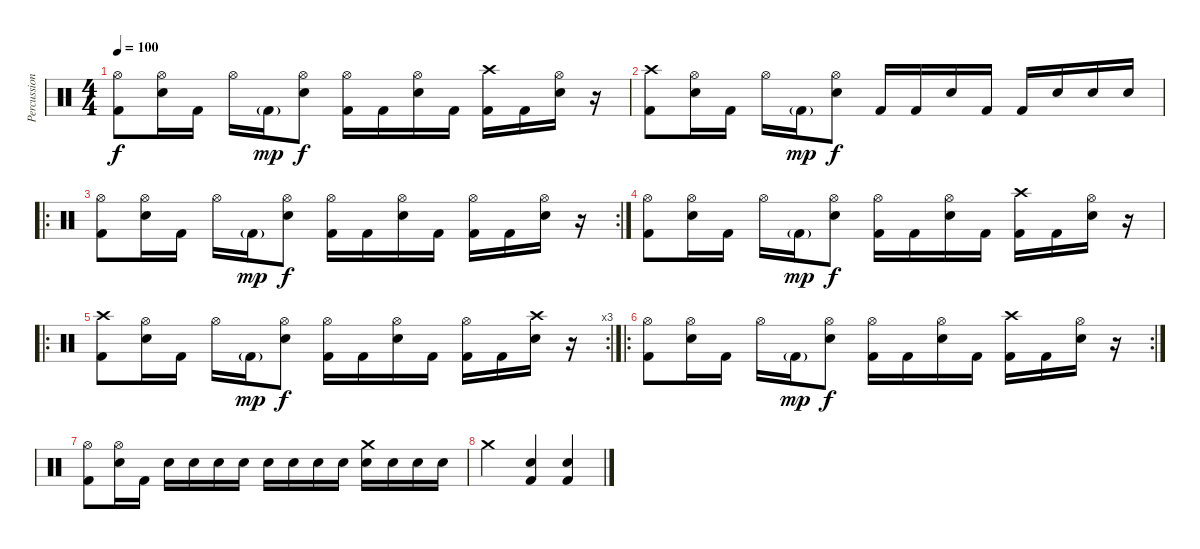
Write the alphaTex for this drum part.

\track ("Percussions" "Percussion") {instrument percussion}
\staff {score}
\articulation defaults
\ts (4 4)
\tempo 100
\clef neutral
\ks c
("Hi-Hat (open)" "Kick (hit) 2").8{dy f} ("Hi-Hat (open)" "Electric Snare (hit)").16 "Kick (hit) 2".16 "Hi-Hat (open)".16 "Kick (hit) 2"{g}.16{dy mp} ("Hi-Hat (open)" "Electric Snare (hit)").8{dy f} ("Hi-Hat (open)" "Kick (hit) 2").16 "Kick (hit) 2".16 ("Hi-Hat (open)" "Electric Snare (hit)").16 "Kick (hit) 2".16 ("Crash high (hit)" "Kick (hit) 2").16 "Kick (hit) 2".16 ("Hi-Hat (open)" "Electric Snare (hit)").16 r.16 |
("Crash high (hit)" "Kick (hit) 2").8 ("Hi-Hat (open)" "Electric Snare (hit)").16 "Kick (hit) 2".16 "Hi-Hat (open)".16 "Kick (hit) 2"{g}.16{dy mp} ("Hi-Hat (open)" "Electric Snare (hit)").8{dy f} "Kick (hit) 2".16 "Kick (hit) 2".16 "Electric Snare (hit)".16 "Kick (hit) 2".16 "Kick (hit) 2".16 "Electric Snare (hit)".16 "Electric Snare (hit)".16 "Electric Snare (hit)".16 |
\ro
\rc 2
("Hi-Hat (open)" "Kick (hit) 2").8 ("Hi-Hat (open)" "Electric Snare (hit)").16 "Kick (hit) 2".16 "Hi-Hat (open)".16 "Kick (hit) 2"{g}.16{dy mp} ("Hi-Hat (open)" "Electric Snare (hit)").8{dy f} ("Hi-Hat (open)" "Kick (hit) 2").16 "Kick (hit) 2".16 ("Hi-Hat (open)" "Electric Snare (hit)").16 "Kick (hit) 2".16 ("Hi-Hat (open)" "Kick (hit) 2").16 "Kick (hit) 2".16 ("Hi-Hat (open)" "Electric Snare (hit)").16 r.16 |
("Hi-Hat (open)" "Kick (hit) 2").8 ("Hi-Hat (open)" "Electric Snare (hit)").16 "Kick (hit) 2".16 "Hi-Hat (open)".16 "Kick (hit) 2"{g}.16{dy mp} ("Hi-Hat (open)" "Electric Snare (hit)").8{dy f} ("Hi-Hat (open)" "Kick (hit) 2").16 "Kick (hit) 2".16 ("Hi-Hat (open)" "Electric Snare (hit)").16 "Kick (hit) 2".16 ("Crash high (hit)" "Kick (hit) 2").16 "Kick (hit) 2".16 ("Hi-Hat (open)" "Electric Snare (hit)").16 r.16 |
\ro
\rc 3
("Crash high (hit)" "Kick (hit) 2").8 ("Hi-Hat (open)" "Electric Snare (hit)").16 "Kick (hit) 2".16 "Hi-Hat (open)".16 "Kick (hit) 2"{g}.16{dy mp} ("Hi-Hat (open)" "Electric Snare (hit)").8{dy f} ("Hi-Hat (open)" "Kick (hit) 2").16 "Kick (hit) 2".16 ("Hi-Hat (open)" "Electric Snare (hit)").16 "Kick (hit) 2".16 ("Hi-Hat (open)" "Kick (hit) 2").16 "Kick (hit) 2".16 ("Crash high (hit)" "Electric Snare (hit)").16 r.16 |
\ro
\rc 2
("Hi-Hat (open)" "Kick (hit) 2").8 ("Hi-Hat (open)" "Electric Snare (hit)").16 "Kick (hit) 2".16 "Hi-Hat (open)".16 "Kick (hit) 2"{g}.16{dy mp} ("Hi-Hat (open)" "Electric Snare (hit)").8{dy f} ("Hi-Hat (open)" "Kick (hit) 2").16 "Kick (hit) 2".16 ("Hi-Hat (open)" "Electric Snare (hit)").16 "Kick (hit) 2".16 ("Crash high (hit)" "Kick (hit) 2").16 "Kick (hit) 2".16 ("Hi-Hat (open)" "Electric Snare (hit)").16 r.16 |
("Hi-Hat (open)" "Kick (hit) 2").8 ("Hi-Hat (open)" "Electric Snare (hit)").16 "Kick (hit) 2".16 "Snare (hit) 2".16 "Snare (hit) 2".16 "Snare (hit) 2".16 "Snare (hit) 2".16 "Snare (hit) 2".16 "Snare (hit) 2".16 "Snare (hit) 2".16 "Snare (hit) 2".16 ("Crash medium (hit)" "Snare (hit) 2").16 "Snare (hit) 2".16 "Snare (hit) 2".16 "Snare (hit) 2".16 |
"Crash medium (hit)".2 ("Snare (hit) 2" "Kick (hit) 2").4 ("Snare (hit) 2" "Kick (hit) 2").4
